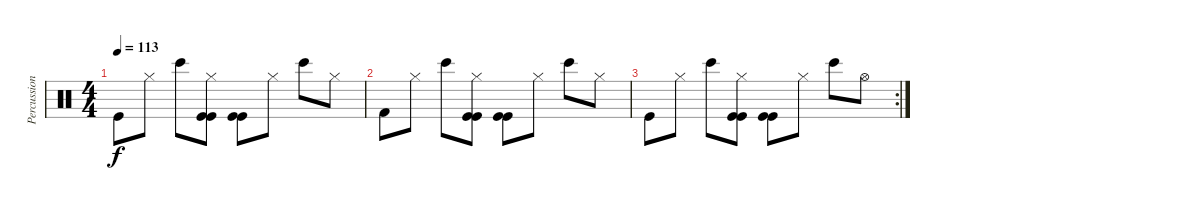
\track ("Percussion" "Percussion") {instrument percussion}
\staff {score}
\articulation defaults
\ts (4 4)
\tempo 113
\clef neutral
\ks c "Kick (hit)".8{dy f} "Hi-Hat (closed)".8 "Bongo High (hit)".8
("Hi-Hat (closed)" "Kick (hit)" "Kick (hit)").8 ("Kick (hit)" "Kick (hit)").8 "Hi-Hat (closed)".8 "Bongo High (hit)".8 "Hi-Hat (closed)".8 |
"Kick (hit) 2".8 "Hi-Hat (closed)".8 "Bongo High (hit)".8 ("Hi-Hat (closed)" "Kick (hit)" "Kick (hit)").8 ("Kick (hit)" "Kick (hit)").8 "Hi-Hat (closed)".8 "Bongo High (hit)".8 "Hi-Hat (closed)".8 |
\rc 2 "Kick (hit)".8 "Hi-Hat (closed)".8 "Bongo High (hit)".8
("Hi-Hat (closed)" "Kick (hit)" "Kick (hit)").8 ("Kick (hit)" "Kick (hit)").8 "Hi-Hat (closed)".8 "Bongo High (hit)".8 "Hi-Hat (open)".8
